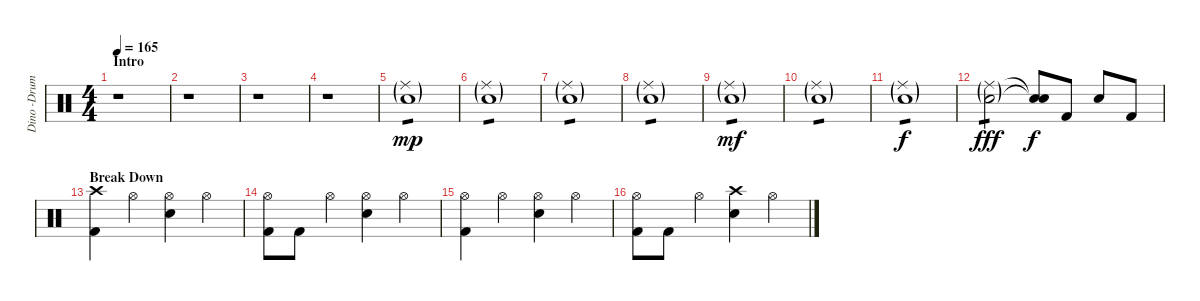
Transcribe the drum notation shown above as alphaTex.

\track ("Dino -Drums" "Dino -Drum") {instrument percussion}
\staff {score}
\articulation defaults
\ts (4 4)
\section ("" "Intro")
\tempo 165
\clef neutral
\ks c
r.1{dy mp} |
r.1 |
r.1 |
r.1 |
("Ride (middle)"{g} "Electric Snare (hit)"{g}).1{tp 1} |
("Ride (middle)"{g} "Electric Snare (hit)"{g}).1{tp 1} |
("Ride (middle)"{g} "Electric Snare (hit)"{g}).1{tp 1} |
("Ride (middle)"{g} "Electric Snare (hit)"{g}).1{tp 1} |
("Ride (middle)"{g} "Electric Snare (hit)"{g}).1{tp 1 dy mf} |
("Ride (middle)"{g} "Electric Snare (hit)"{g}).1{tp 1} |
("Ride (middle)"{g} "Electric Snare (hit)"{g}).1{tp 1 dy f} |
("Ride (middle)"{g} "Electric Snare (hit)"{g}).2{tp 1 dy fff} ("Snare (hit)"{t} "Snare (hit)"{t}).8{dy f} "Kick (hit) 2".8 "Electric Snare (hit)".8 "Kick (hit) 2".8 |
\section ("" "Break Down")
("Crash high (hit)" "Kick (hit) 2").4 "Hi-Hat (open)".4 ("Hi-Hat (open)" "Electric Snare (hit)").4 "Hi-Hat (open)".4 |
("Hi-Hat (open)" "Kick (hit) 2").8 "Kick (hit) 2".8 "Hi-Hat (open)".4 ("Hi-Hat (open)" "Electric Snare (hit)").4 "Hi-Hat (open)".4 |
("Hi-Hat (open)" "Kick (hit) 2").4 "Hi-Hat (open)".4 ("Hi-Hat (open)" "Electric Snare (hit)").4 "Hi-Hat (open)".4 |
("Hi-Hat (open)" "Kick (hit) 2").8 "Kick (hit) 2".8 "Hi-Hat (open)".4 ("Crash high (hit)" "Electric Snare (hit)").4 "Hi-Hat (open)".4
